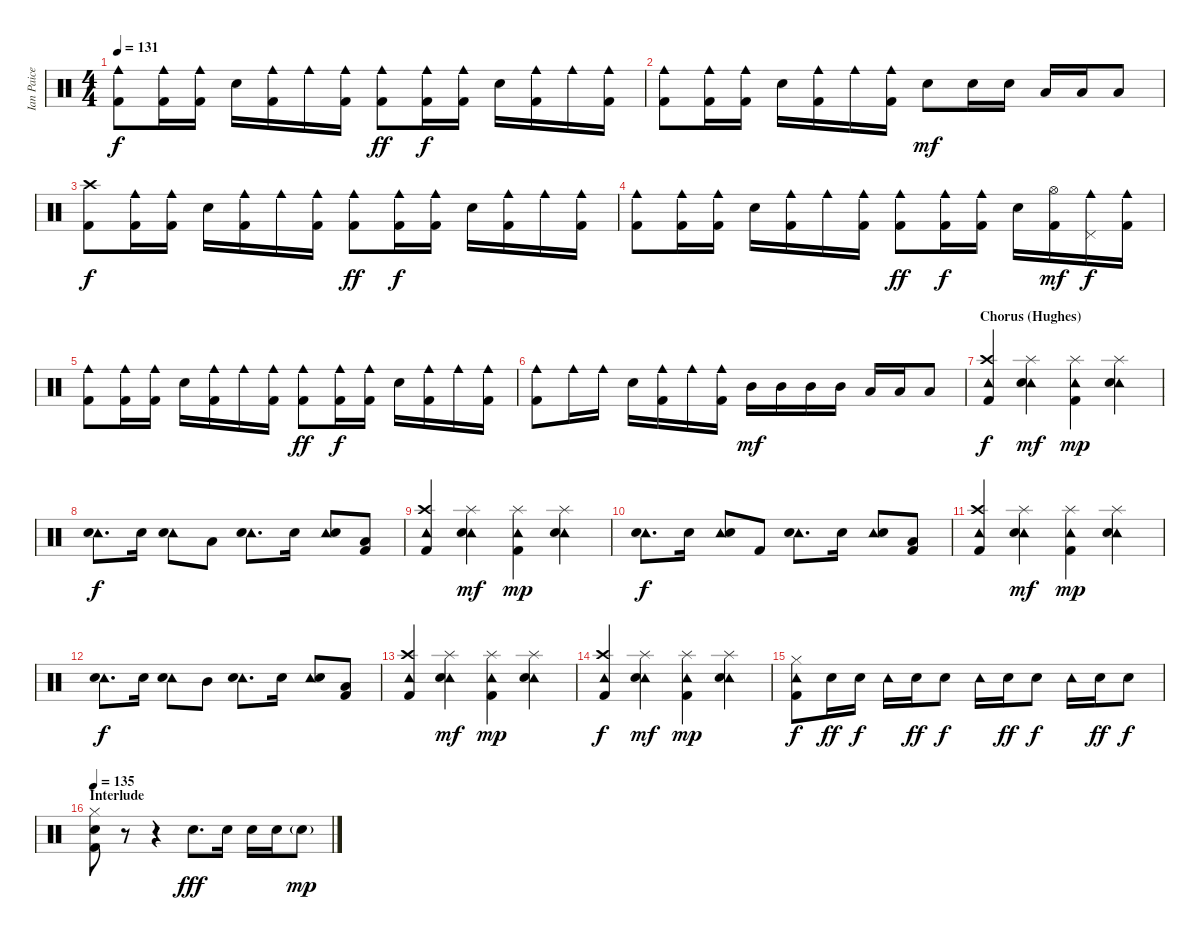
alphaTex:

\track ("Ian Paice" "Ian Paice") {instrument percussion}
\staff {score}
\articulation defaults
\ts (4 4)
\tempo 131
\clef neutral
\ks c
("Cowbell medium (hit)" "Kick (hit) 2").8{dy f} ("Cowbell medium (hit)" "Kick (hit) 2").16 ("Cowbell medium (hit)" "Kick (hit) 2").16 "Snare (hit) 2".16 ("Cowbell medium (hit)" "Kick (hit) 2").16 "Cowbell medium (hit)".16 ("Cowbell medium (hit)" "Kick (hit) 2").16 ("Cowbell medium (hit)" "Kick (hit) 2").8{dy ff} ("Cowbell medium (hit)" "Kick (hit) 2").16{dy f} ("Cowbell medium (hit)" "Kick (hit) 2").16 "Snare (hit) 2".16 ("Cowbell medium (hit)" "Kick (hit) 2").16 "Cowbell medium (hit)".16 ("Cowbell medium (hit)" "Kick (hit) 2").16 |
("Cowbell medium (hit)" "Kick (hit) 2").8 ("Cowbell medium (hit)" "Kick (hit) 2").16 ("Cowbell medium (hit)" "Kick (hit) 2").16 "Snare (hit) 2".16 ("Cowbell medium (hit)" "Kick (hit) 2").16 "Cowbell medium (hit)".16 ("Cowbell medium (hit)" "Kick (hit) 2").16 "Snare (hit) 2".8{dy mf} "Snare (hit) 2".16 "Snare (hit) 2".16 "Low Tom (hit)".16 "Low Tom (hit)".16 "Low Tom (hit)".8 |
("Crash high (hit)" "Kick (hit) 2").8{dy f} ("Cowbell medium (hit)" "Kick (hit) 2").16 ("Cowbell medium (hit)" "Kick (hit) 2").16 "Snare (hit) 2".16 ("Cowbell medium (hit)" "Kick (hit) 2").16 "Cowbell medium (hit)".16 ("Cowbell medium (hit)" "Kick (hit) 2").16 ("Cowbell medium (hit)" "Kick (hit) 2").8{dy ff} ("Cowbell medium (hit)" "Kick (hit) 2").16{dy f} ("Cowbell medium (hit)" "Kick (hit) 2").16 "Snare (hit) 2".16 ("Cowbell medium (hit)" "Kick (hit) 2").16 "Cowbell medium (hit)".16 ("Cowbell medium (hit)" "Kick (hit) 2").16 |
("Cowbell medium (hit)" "Kick (hit) 2").8 ("Cowbell medium (hit)" "Kick (hit) 2").16 ("Cowbell medium (hit)" "Kick (hit) 2").16 "Snare (hit) 2".16 ("Cowbell medium (hit)" "Kick (hit) 2").16 "Cowbell medium (hit)".16 ("Cowbell medium (hit)" "Kick (hit) 2").16 ("Cowbell medium (hit)" "Kick (hit) 2").8{dy ff} ("Cowbell medium (hit)" "Kick (hit) 2").16{dy f} ("Cowbell medium (hit)" "Kick (hit) 2").16 "Snare (hit) 2".16 ("Hi-Hat (open)" "Kick (hit) 2").16{dy mf} ("Pedal Hi-Hat (hit)" "Cowbell medium (hit)").16{dy f} ("Cowbell medium (hit)" "Kick (hit) 2").16 |
("Cowbell medium (hit)" "Kick (hit) 2").8 ("Cowbell medium (hit)" "Kick (hit) 2").16 ("Cowbell medium (hit)" "Kick (hit) 2").16 "Snare (hit) 2".16 ("Cowbell medium (hit)" "Kick (hit) 2").16 "Cowbell medium (hit)".16 ("Cowbell medium (hit)" "Kick (hit) 2").16 ("Cowbell medium (hit)" "Kick (hit) 2").8{dy ff} ("Cowbell medium (hit)" "Kick (hit) 2").16{dy f} ("Cowbell medium (hit)" "Kick (hit) 2").16 "Snare (hit) 2".16 ("Cowbell medium (hit)" "Kick (hit) 2").16 "Cowbell medium (hit)".16 ("Cowbell medium (hit)" "Kick (hit) 2").16 |
("Cowbell medium (hit)" "Kick (hit) 2").8 "Cowbell medium (hit)".16 "Cowbell medium (hit)".16 "Snare (hit) 2".16 ("Cowbell medium (hit)" "Kick (hit) 2").16 "Cowbell medium (hit)".16 ("Cowbell medium (hit)" "Kick (hit) 2").16 "Mid Tom (hit)".16{dy mf} "Mid Tom (hit)".16 "Mid Tom (hit)".16 "Mid Tom (hit)".16 "Low Tom (hit)".16 "Low Tom (hit)".16 "Low Tom (hit)".8 |
\section ("" "Chorus (Hughes)")
("Crash high (hit)" "Tambourine (hit)" "Kick (hit) 2").4{dy f} ("Splash (hit)" "Tambourine (hit)" "Snare (hit) 2").4{dy mf} ("Splash (hit)" "Tambourine (hit)" "Kick (hit) 2").4{dy mp} ("Splash (hit)" "Tambourine (hit)" "Snare (hit) 2").4 |
("Tambourine (hit)" "Snare (hit) 2").8{d dy f} "Snare (hit) 2".16 ("Tambourine (hit)" "Snare (hit) 2").8 "Low Tom (hit)".8 ("Tambourine (hit)" "Snare (hit) 2").8{d} "Snare (hit) 2".16 ("Tambourine (hit)" "Snare (hit) 2").8 ("Low Tom (hit)" "Kick (hit) 2").8 |
("Crash high (hit)" "Tambourine (hit)" "Kick (hit) 2").4 ("Splash (hit)" "Tambourine (hit)" "Snare (hit) 2").4{dy mf} ("Splash (hit)" "Tambourine (hit)" "Kick (hit) 2").4{dy mp} ("Splash (hit)" "Tambourine (hit)" "Snare (hit) 2").4 |
("Tambourine (hit)" "Snare (hit) 2").8{d dy f} "Snare (hit) 2".16 ("Tambourine (hit)" "Snare (hit) 2").8 "Kick (hit) 2".8 ("Tambourine (hit)" "Snare (hit) 2").8{d} "Snare (hit) 2".16 ("Tambourine (hit)" "Snare (hit) 2").8 ("Low Tom (hit)" "Kick (hit) 2").8 |
("Crash high (hit)" "Tambourine (hit)" "Kick (hit) 2").4 ("Splash (hit)" "Tambourine (hit)" "Snare (hit) 2").4{dy mf} ("Splash (hit)" "Tambourine (hit)" "Kick (hit) 2").4{dy mp} ("Splash (hit)" "Tambourine (hit)" "Snare (hit) 2").4 |
("Tambourine (hit)" "Snare (hit) 2").8{d dy f} "Snare (hit) 2".16 ("Tambourine (hit)" "Snare (hit) 2").8 "Mid Tom (hit)".8 ("Tambourine (hit)" "Snare (hit) 2").8{d} "Snare (hit) 2".16 ("Tambourine (hit)" "Snare (hit) 2").8 ("Low Tom (hit)" "Kick (hit) 2").8 |
("Crash high (hit)" "Tambourine (hit)" "Kick (hit) 2").4 ("Splash (hit)" "Tambourine (hit)" "Snare (hit) 2").4{dy mf} ("Splash (hit)" "Tambourine (hit)" "Kick (hit) 2").4{dy mp} ("Splash (hit)" "Tambourine (hit)" "Snare (hit) 2").4 |
("Crash high (hit)" "Tambourine (hit)" "Kick (hit) 2").4{dy f} ("Splash (hit)" "Tambourine (hit)" "Snare (hit) 2").4{dy mf} ("Splash (hit)" "Tambourine (hit)" "Kick (hit) 2").4{dy mp} ("Splash (hit)" "Tambourine (hit)" "Snare (hit) 2").4 |
("Hi-Hat (closed)" "Tambourine (hit)" "Kick (hit) 2").8{dy f} "Snare (hit) 2".16{dy ff} "Snare (hit) 2".16{dy f} "Tambourine (hit)".16 "Snare (hit) 2".16{dy ff} "Snare (hit) 2".8{dy f} "Tambourine (hit)".16 "Snare (hit) 2".16{dy ff} "Snare (hit) 2".8{dy f} "Tambourine (hit)".16 "Snare (hit) 2".16{dy ff} "Snare (hit) 2".8{dy f} |
\section ("" "Interlude")
\tempo 135
("Hi-Hat (closed)" "Snare (hit) 2" "Kick (hit) 2").8 r.8 r.4 "Snare (hit) 2".8{d dy fff} "Snare (hit) 2".16 "Snare (hit) 2".16 "Snare (hit) 2".16 "Snare (hit) 2"{g}.8{dy mp}
